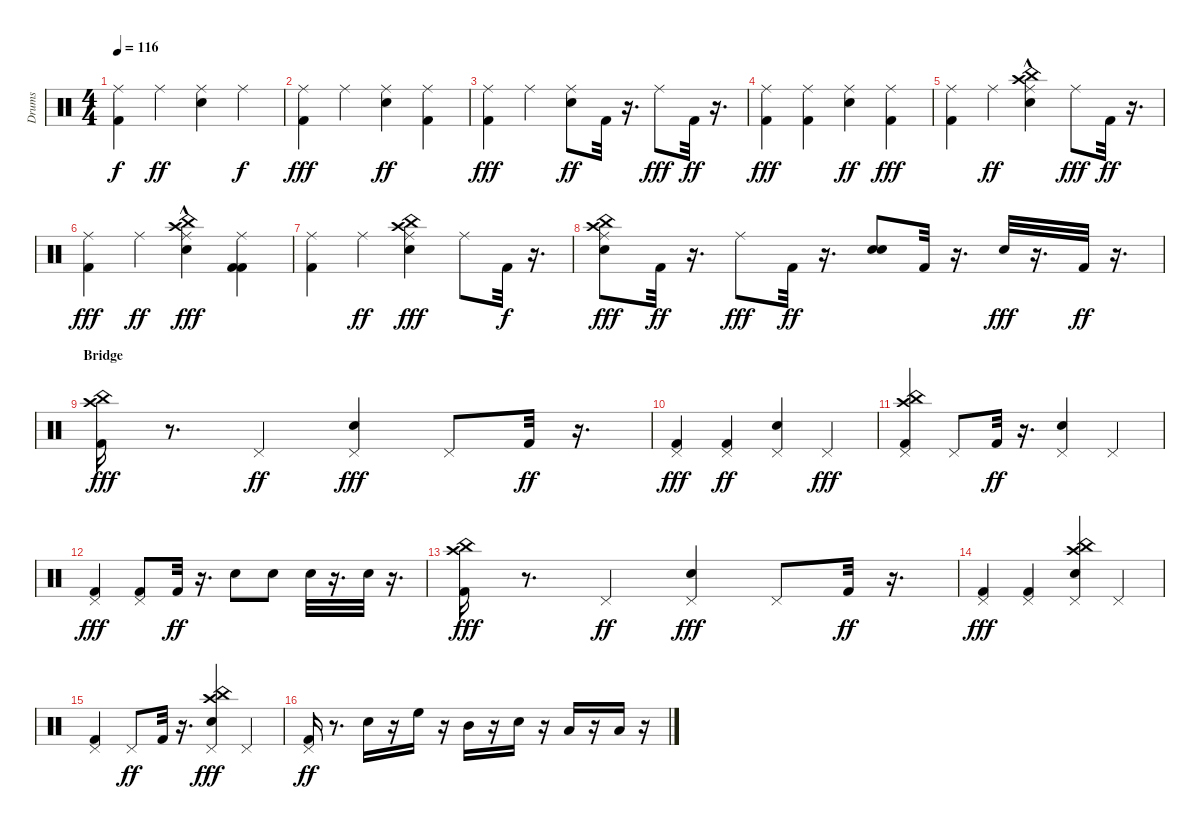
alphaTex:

\track ("Drums" "Drums") {instrument percussion}
\staff {score}
\articulation defaults
\ts (4 4)
\tempo 116
\clef neutral
\ks c
("Kick (hit) 2" "Ride (middle)").4{dy f} "Ride (middle)".4{dy ff} ("Snare (hit) 2" "Ride (middle)").4 "Ride (middle)".4{dy f} |
("Kick (hit) 2" "Ride (middle)").4{dy fff} "Ride (middle)".4 ("Snare (hit) 2" "Ride (middle)").4{dy ff} ("Kick (hit) 2" "Ride (middle)").4 |
("Kick (hit) 2" "Ride (middle)").4{dy fff} "Ride (middle)".4 ("Ride (middle)" "Snare (hit) 2").8{dy ff} "Kick (hit) 2".32 r.16{d} "Ride (middle)".8{dy fff} "Kick (hit) 2".32{dy ff} r.16{d} |
("Kick (hit) 2" "Ride (middle)").4{dy fff} ("Kick (hit) 2" "Ride (middle)").4 ("Snare (hit) 2" "Ride (middle)").4{dy ff} ("Kick (hit) 2" "Ride (middle)").4{dy fff} |
("Kick (hit) 2" "Ride (middle)").4 "Ride (middle)".4{dy ff} ("China (hit)"{hac} "Snare (hit) 2" "Ride (middle)" "Crash high (hit)").4 "Ride (middle)".8{dy fff} "Kick (hit) 2".32{dy ff} r.16{d} |
("Kick (hit) 2" "Ride (middle)").4{dy fff} "Ride (middle)".4{dy ff} ("Crash high (hit)"{hac} "China (hit)" "Snare (hit) 2" "Ride (middle)").4{dy fff} ("Kick (hit) 2" "Kick (hit) 2" "Ride (middle)").4 |
("Kick (hit) 2" "Ride (middle)").4 "Ride (middle)".4{dy ff} ("China (hit)" "Crash high (hit)" "Snare (hit) 2" "Ride (middle)").4{dy fff} "Ride (middle)".8 "Kick (hit) 2".32{dy f} r.16{d} |
("Snare (hit) 2" "Crash high (hit)" "China (hit)" "Ride (middle)").8{dy fff} "Kick (hit) 2".32{dy ff} r.16{d} "Ride (middle)".8{dy fff} "Kick (hit) 2".32{dy ff} r.16{d} ("Snare (hit) 2" "Snare (hit) 2").8 "Kick (hit) 2".32 r.16{d} "Snare (hit) 2".32{dy fff} r.16{d} "Kick (hit) 2".32{dy ff} r.16{d} |
\section ("" "Bridge")
("China (hit)" "Crash high (hit)" "Kick (hit) 2").16{dy fff} r.8{d} "Pedal Hi-Hat (hit)".4{dy ff} ("Snare (hit) 2" "Pedal Hi-Hat (hit)").4{dy fff} "Pedal Hi-Hat (hit)".8 "Kick (hit) 2".32{dy ff} r.16{d} |
("Kick (hit) 2" "Pedal Hi-Hat (hit)").4{dy fff} ("Kick (hit) 2" "Pedal Hi-Hat (hit)").4{dy ff} ("Snare (hit) 2" "Pedal Hi-Hat (hit)").4 "Pedal Hi-Hat (hit)".4{dy fff} |
("Crash high (hit)" "China (hit)" "Kick (hit) 2" "Pedal Hi-Hat (hit)").4 "Pedal Hi-Hat (hit)".8 "Kick (hit) 2".32{dy ff} r.16{d} ("Pedal Hi-Hat (hit)" "Snare (hit) 2").4 "Pedal Hi-Hat (hit)".4 |
("Kick (hit) 2" "Pedal Hi-Hat (hit)").4{dy fff} ("Kick (hit) 2" "Pedal Hi-Hat (hit)").8 "Kick (hit) 2".32{dy ff} r.16{d} "Snare (hit) 2".8 "Snare (hit) 2".8 "Snare (hit) 2".32 r.16{d} "Snare (hit) 2".32 r.16{d} |
("China (hit)" "Crash high (hit)" "Kick (hit) 2").16{dy fff} r.8{d} "Pedal Hi-Hat (hit)".4{dy ff} ("Snare (hit) 2" "Pedal Hi-Hat (hit)").4{dy fff} "Pedal Hi-Hat (hit)".8 "Kick (hit) 2".32{dy ff} r.16{d} |
("Kick (hit) 2" "Pedal Hi-Hat (hit)").4{dy fff} ("Kick (hit) 2" "Pedal Hi-Hat (hit)").4 ("China (hit)" "Crash high (hit)" "Snare (hit) 2" "Pedal Hi-Hat (hit)").4 "Pedal Hi-Hat (hit)".4 |
("Kick (hit) 2" "Pedal Hi-Hat (hit)").4 "Pedal Hi-Hat (hit)".8{dy ff} "Kick (hit) 2".32 r.16{d} ("China (hit)" "Crash high (hit)" "Snare (hit) 2" "Pedal Hi-Hat (hit)").4{dy fff} "Pedal Hi-Hat (hit)".4 |
("Pedal Hi-Hat (hit)" "Kick (hit) 2").16{dy ff} r.8{d} "Snare (hit) 2".16 r.16 "High Floor Tom (hit)".16 r.16 "Mid Tom (hit)".16 r.16 "Snare (hit) 2".16 r.16 "Low Tom (hit)".16 r.16 "Low Floor Tom (hit)".16 r.16
